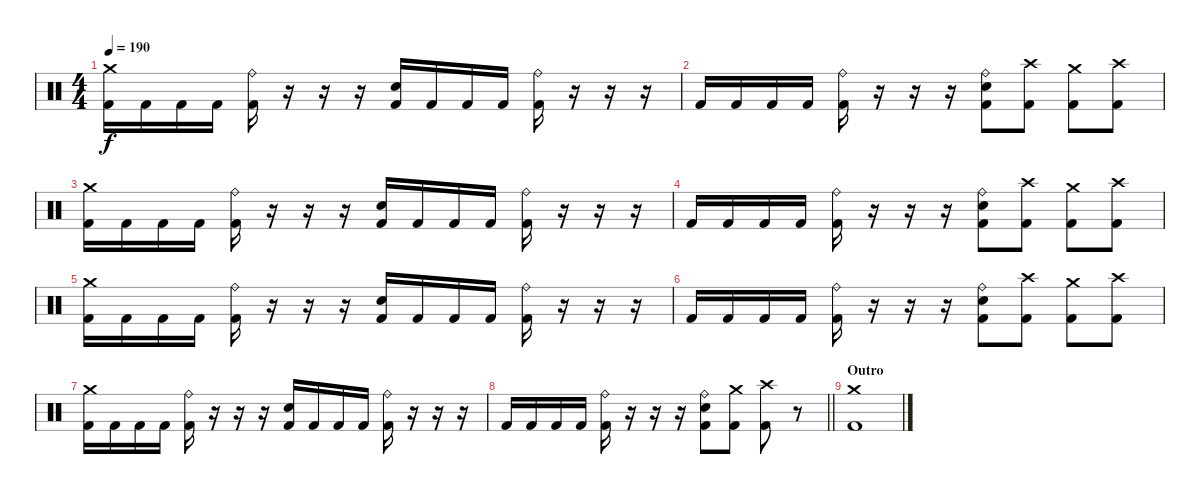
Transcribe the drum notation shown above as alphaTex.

\track "" {instrument percussion}
\staff {score}
\articulation defaults
\ts (4 4)
\tempo 190
\clef neutral
\ks c
("Crash medium (hit)" "Kick (hit) 2").16{dy f} "Kick (hit) 2".16 "Kick (hit) 2".16 "Kick (hit) 2".16 ("Ride (bell)" "Kick (hit) 2").16 r.16 r.16 r.16 ("Electric Snare (hit)" "Kick (hit) 2").16 "Kick (hit) 2".16 "Kick (hit) 2".16 "Kick (hit) 2".16 ("Ride (bell)" "Kick (hit) 2").16 r.16 r.16 r.16 |
"Kick (hit) 2".16 "Kick (hit) 2".16 "Kick (hit) 2".16 "Kick (hit) 2".16 ("Ride (bell)" "Kick (hit) 2").16 r.16 r.16 r.16 ("Ride (bell)" "Electric Snare (hit)" "Kick (hit) 2").8 ("Crash high (hit)" "Kick (hit) 2").8 ("Crash medium (hit)" "Kick (hit) 2").8 ("Crash high (hit)" "Kick (hit) 2").8 |
("Crash medium (hit)" "Kick (hit) 2").16 "Kick (hit) 2".16 "Kick (hit) 2".16 "Kick (hit) 2".16 ("Ride (bell)" "Kick (hit) 2").16 r.16 r.16 r.16 ("Electric Snare (hit)" "Kick (hit) 2").16 "Kick (hit) 2".16 "Kick (hit) 2".16 "Kick (hit) 2".16 ("Ride (bell)" "Kick (hit) 2").16 r.16 r.16 r.16 |
"Kick (hit) 2".16 "Kick (hit) 2".16 "Kick (hit) 2".16 "Kick (hit) 2".16 ("Ride (bell)" "Kick (hit) 2").16 r.16 r.16 r.16 ("Ride (bell)" "Electric Snare (hit)" "Kick (hit) 2").8 ("Crash high (hit)" "Kick (hit) 2").8 ("Crash medium (hit)" "Kick (hit) 2").8 ("Crash high (hit)" "Kick (hit) 2").8 |
("Crash medium (hit)" "Kick (hit) 2").16 "Kick (hit) 2".16 "Kick (hit) 2".16 "Kick (hit) 2".16 ("Ride (bell)" "Kick (hit) 2").16 r.16 r.16 r.16 ("Electric Snare (hit)" "Kick (hit) 2").16 "Kick (hit) 2".16 "Kick (hit) 2".16 "Kick (hit) 2".16 ("Ride (bell)" "Kick (hit) 2").16 r.16 r.16 r.16 |
"Kick (hit) 2".16 "Kick (hit) 2".16 "Kick (hit) 2".16 "Kick (hit) 2".16 ("Ride (bell)" "Kick (hit) 2").16 r.16 r.16 r.16 ("Ride (bell)" "Electric Snare (hit)" "Kick (hit) 2").8 ("Crash high (hit)" "Kick (hit) 2").8 ("Crash medium (hit)" "Kick (hit) 2").8 ("Crash high (hit)" "Kick (hit) 2").8 |
("Crash medium (hit)" "Kick (hit) 2").16 "Kick (hit) 2".16 "Kick (hit) 2".16 "Kick (hit) 2".16 ("Ride (bell)" "Kick (hit) 2").16 r.16 r.16 r.16 ("Electric Snare (hit)" "Kick (hit) 2").16 "Kick (hit) 2".16 "Kick (hit) 2".16 "Kick (hit) 2".16 ("Ride (bell)" "Kick (hit) 2").16 r.16 r.16 r.16 |
\barLineRight lightlight "Kick (hit) 2".16 "Kick (hit) 2".16 "Kick (hit) 2".16 "Kick (hit) 2".16
("Ride (bell)" "Kick (hit) 2").16 r.16 r.16 r.16 ("Ride (bell)" "Electric Snare (hit)" "Kick (hit) 2").8 ("Crash medium (hit)" "Kick (hit) 2").8 ("Crash high (hit)" "Kick (hit) 2").8 r.8 |
\section ("" "Outro")
("Crash medium (hit)" "Kick (hit) 2").1
